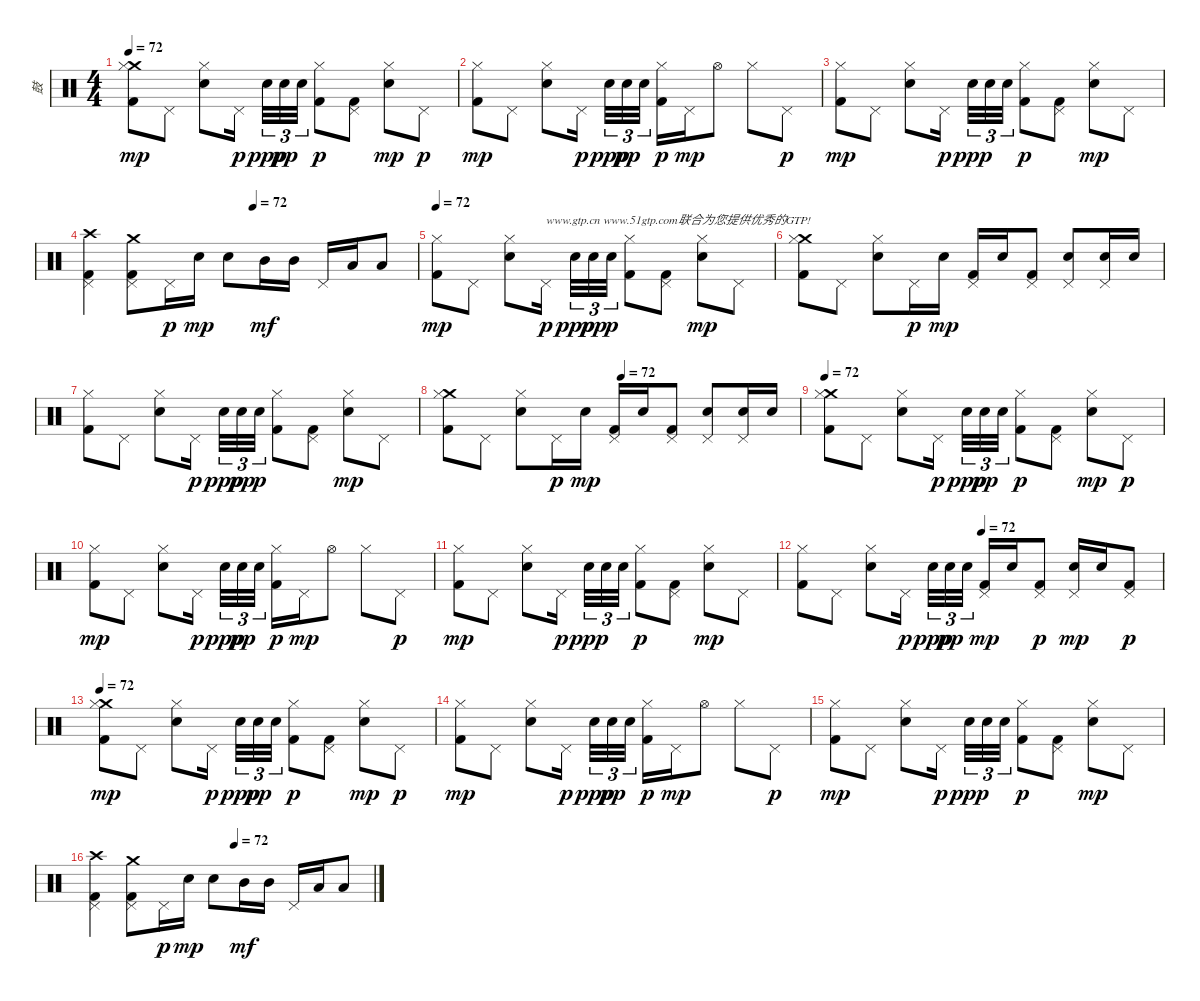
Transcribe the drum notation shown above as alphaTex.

\track ("鼓" "鼓") {instrument percussion}
\staff {score}
\articulation defaults
\ts (4 4)
\tempo 72
\clef neutral
\ks c
("Crash medium (hit)" "Hi-Hat (closed)" "Kick (hit) 2").8{dy mp} "Pedal Hi-Hat (hit)".8 ("Hi-Hat (closed)" "Electric Snare (hit)").8 "Pedal Hi-Hat (hit)".16{dy p beam splitsecondary} "Electric Snare (hit)".32{tu (3 2) dy ppp} "Electric Snare (hit)".32{tu (3 2) dy pp} "Electric Snare (hit)".32{tu (3 2)} ("Hi-Hat (closed)" "Kick (hit) 2").8{dy p} ("Pedal Hi-Hat (hit)" "Kick (hit) 2").8 ("Hi-Hat (closed)" "Electric Snare (hit)").8{dy mp} "Pedal Hi-Hat (hit)".8{dy p} |
("Hi-Hat (closed)" "Kick (hit) 2").8{dy mp} "Pedal Hi-Hat (hit)".8 ("Hi-Hat (closed)" "Electric Snare (hit)").8 "Pedal Hi-Hat (hit)".16{dy p beam splitsecondary} "Electric Snare (hit)".32{tu (3 2) dy ppp} "Electric Snare (hit)".32{tu (3 2) dy pp} "Electric Snare (hit)".32{tu (3 2)} ("Hi-Hat (closed)" "Kick (hit) 2").16{dy p} "Pedal Hi-Hat (hit)".16{dy mp} "Hi-Hat (open)".8 "Hi-Hat (closed)".8 "Pedal Hi-Hat (hit)".8{dy p} |
("Hi-Hat (closed)" "Kick (hit) 2").8{dy mp} "Pedal Hi-Hat (hit)".8 ("Hi-Hat (closed)" "Electric Snare (hit)").8 "Pedal Hi-Hat (hit)".16{dy p beam splitsecondary} "Electric Snare (hit)".32{tu (3 2) dy ppp} "Electric Snare (hit)".32{tu (3 2)} "Electric Snare (hit)".32{tu (3 2)} ("Hi-Hat (closed)" "Kick (hit) 2").8{dy p} ("Pedal Hi-Hat (hit)" "Kick (hit) 2").8 ("Hi-Hat (closed)" "Electric Snare (hit)").8{dy mp} "Pedal Hi-Hat (hit)".8 |
\tempo (72 0.5)
("Crash high (hit)" "Pedal Hi-Hat (hit)" "Kick (hit) 2").4 ("Crash medium (hit)" "Pedal Hi-Hat (hit)" "Kick (hit) 2").8 "Pedal Hi-Hat (hit)".16{dy p} "Electric Snare (hit)".16{dy mp} "Electric Snare (hit)".8 "Mid Tom (hit)".16{dy mf} "Mid Tom (hit)".16 "Pedal Hi-Hat (hit)".16 "Low Tom (hit)".16 "Low Tom (hit)".8 |
\tempo 72
("Hi-Hat (closed)" "Kick (hit) 2").8{dy mp} "Pedal Hi-Hat (hit)".8 ("Hi-Hat (closed)" "Electric Snare (hit)").8 "Pedal Hi-Hat (hit)".16{txt "www.gtp.cn www.51gtp.com联合为您提供优秀的GTP!" dy p beam splitsecondary} "Electric Snare (hit)".32{tu (3 2) dy ppp} "Electric Snare (hit)".32{tu (3 2) dy pp} "Electric Snare (hit)".32{tu (3 2) dy p} ("Hi-Hat (closed)" "Kick (hit) 2").8 ("Pedal Hi-Hat (hit)" "Kick (hit) 2").8 ("Hi-Hat (closed)" "Electric Snare (hit)").8{dy mp} "Pedal Hi-Hat (hit)".8 |
("Crash medium (hit)" "Hi-Hat (closed)" "Kick (hit) 2").8 "Pedal Hi-Hat (hit)".8 ("Hi-Hat (closed)" "Electric Snare (hit)").8 "Pedal Hi-Hat (hit)".16{dy p} "Electric Snare (hit)".16{dy mp} ("Pedal Hi-Hat (hit)" "Kick (hit) 2").16 "Electric Snare (hit)".16 ("Pedal Hi-Hat (hit)" "Kick (hit) 2").8 ("Pedal Hi-Hat (hit)" "Electric Snare (hit)").8 ("Pedal Hi-Hat (hit)" "Electric Snare (hit)").16 "Electric Snare (hit)".16 |
("Hi-Hat (closed)" "Kick (hit) 2").8 "Pedal Hi-Hat (hit)".8 ("Hi-Hat (closed)" "Electric Snare (hit)").8 "Pedal Hi-Hat (hit)".16{dy p beam splitsecondary} "Electric Snare (hit)".32{tu (3 2) dy ppp} "Electric Snare (hit)".32{tu (3 2) dy pp} "Electric Snare (hit)".32{tu (3 2) dy p} ("Hi-Hat (closed)" "Kick (hit) 2").8 ("Pedal Hi-Hat (hit)" "Kick (hit) 2").8 ("Hi-Hat (closed)" "Electric Snare (hit)").8{dy mp} "Pedal Hi-Hat (hit)".8 |
\tempo (72 0.5)
("Crash medium (hit)" "Hi-Hat (closed)" "Kick (hit) 2").8 "Pedal Hi-Hat (hit)".8 ("Hi-Hat (closed)" "Electric Snare (hit)").8 "Pedal Hi-Hat (hit)".16{dy p} "Electric Snare (hit)".16{dy mp} ("Pedal Hi-Hat (hit)" "Kick (hit) 2").16 "Electric Snare (hit)".16 ("Pedal Hi-Hat (hit)" "Kick (hit) 2").8 ("Pedal Hi-Hat (hit)" "Electric Snare (hit)").8 ("Pedal Hi-Hat (hit)" "Electric Snare (hit)").16 "Electric Snare (hit)".16 |
\tempo 72
("Crash medium (hit)" "Hi-Hat (closed)" "Kick (hit) 2").8 "Pedal Hi-Hat (hit)".8 ("Hi-Hat (closed)" "Electric Snare (hit)").8 "Pedal Hi-Hat (hit)".16{dy p beam splitsecondary} "Electric Snare (hit)".32{tu (3 2) dy ppp} "Electric Snare (hit)".32{tu (3 2) dy pp} "Electric Snare (hit)".32{tu (3 2)} ("Hi-Hat (closed)" "Kick (hit) 2").8{dy p} ("Pedal Hi-Hat (hit)" "Kick (hit) 2").8 ("Hi-Hat (closed)" "Electric Snare (hit)").8{dy mp} "Pedal Hi-Hat (hit)".8{dy p} |
("Hi-Hat (closed)" "Kick (hit) 2").8{dy mp} "Pedal Hi-Hat (hit)".8 ("Hi-Hat (closed)" "Electric Snare (hit)").8 "Pedal Hi-Hat (hit)".16{dy p beam splitsecondary} "Electric Snare (hit)".32{tu (3 2) dy ppp} "Electric Snare (hit)".32{tu (3 2) dy pp} "Electric Snare (hit)".32{tu (3 2)} ("Hi-Hat (closed)" "Kick (hit) 2").16{dy p} "Pedal Hi-Hat (hit)".16{dy mp} "Hi-Hat (open)".8 "Hi-Hat (closed)".8 "Pedal Hi-Hat (hit)".8{dy p} |
("Hi-Hat (closed)" "Kick (hit) 2").8{dy mp} "Pedal Hi-Hat (hit)".8 ("Hi-Hat (closed)" "Electric Snare (hit)").8 "Pedal Hi-Hat (hit)".16{dy p beam splitsecondary} "Electric Snare (hit)".32{tu (3 2) dy ppp} "Electric Snare (hit)".32{tu (3 2)} "Electric Snare (hit)".32{tu (3 2)} ("Hi-Hat (closed)" "Kick (hit) 2").8{dy p} ("Pedal Hi-Hat (hit)" "Kick (hit) 2").8 ("Hi-Hat (closed)" "Electric Snare (hit)").8{dy mp} "Pedal Hi-Hat (hit)".8 |
\tempo (72 0.5)
("Hi-Hat (closed)" "Kick (hit) 2").8 "Pedal Hi-Hat (hit)".8 ("Hi-Hat (closed)" "Electric Snare (hit)").8 "Pedal Hi-Hat (hit)".16{dy p beam splitsecondary} "Electric Snare (hit)".32{tu (3 2) dy ppp} "Electric Snare (hit)".32{tu (3 2) dy pp} "Electric Snare (hit)".32{tu (3 2)} ("Pedal Hi-Hat (hit)" "Kick (hit) 2").16{dy mp} "Electric Snare (hit)".16 ("Pedal Hi-Hat (hit)" "Kick (hit) 2").8{dy p} ("Pedal Hi-Hat (hit)" "Electric Snare (hit)").16{dy mp} "Electric Snare (hit)".16 ("Pedal Hi-Hat (hit)" "Kick (hit) 2").8{dy p} |
\tempo 72
("Crash medium (hit)" "Hi-Hat (closed)" "Kick (hit) 2").8{dy mp} "Pedal Hi-Hat (hit)".8 ("Hi-Hat (closed)" "Electric Snare (hit)").8 "Pedal Hi-Hat (hit)".16{dy p beam splitsecondary} "Electric Snare (hit)".32{tu (3 2) dy ppp} "Electric Snare (hit)".32{tu (3 2) dy pp} "Electric Snare (hit)".32{tu (3 2)} ("Hi-Hat (closed)" "Kick (hit) 2").8{dy p} ("Pedal Hi-Hat (hit)" "Kick (hit) 2").8 ("Hi-Hat (closed)" "Electric Snare (hit)").8{dy mp} "Pedal Hi-Hat (hit)".8{dy p} |
("Hi-Hat (closed)" "Kick (hit) 2").8{dy mp} "Pedal Hi-Hat (hit)".8 ("Hi-Hat (closed)" "Electric Snare (hit)").8 "Pedal Hi-Hat (hit)".16{dy p beam splitsecondary} "Electric Snare (hit)".32{tu (3 2) dy ppp} "Electric Snare (hit)".32{tu (3 2) dy pp} "Electric Snare (hit)".32{tu (3 2)} ("Hi-Hat (closed)" "Kick (hit) 2").16{dy p} "Pedal Hi-Hat (hit)".16{dy mp} "Hi-Hat (open)".8 "Hi-Hat (closed)".8 "Pedal Hi-Hat (hit)".8{dy p} |
("Hi-Hat (closed)" "Kick (hit) 2").8{dy mp} "Pedal Hi-Hat (hit)".8 ("Hi-Hat (closed)" "Electric Snare (hit)").8 "Pedal Hi-Hat (hit)".16{dy p beam splitsecondary} "Electric Snare (hit)".32{tu (3 2) dy ppp} "Electric Snare (hit)".32{tu (3 2)} "Electric Snare (hit)".32{tu (3 2)} ("Hi-Hat (closed)" "Kick (hit) 2").8{dy p} ("Pedal Hi-Hat (hit)" "Kick (hit) 2").8 ("Hi-Hat (closed)" "Electric Snare (hit)").8{dy mp} "Pedal Hi-Hat (hit)".8 |
\tempo (72 0.5)
("Crash high (hit)" "Pedal Hi-Hat (hit)" "Kick (hit) 2").4 ("Crash medium (hit)" "Pedal Hi-Hat (hit)" "Kick (hit) 2").8 "Pedal Hi-Hat (hit)".16{dy p} "Electric Snare (hit)".16{dy mp} "Electric Snare (hit)".8 "Mid Tom (hit)".16{dy mf} "Mid Tom (hit)".16 "Pedal Hi-Hat (hit)".16 "Low Tom (hit)".16 "Low Tom (hit)".8
